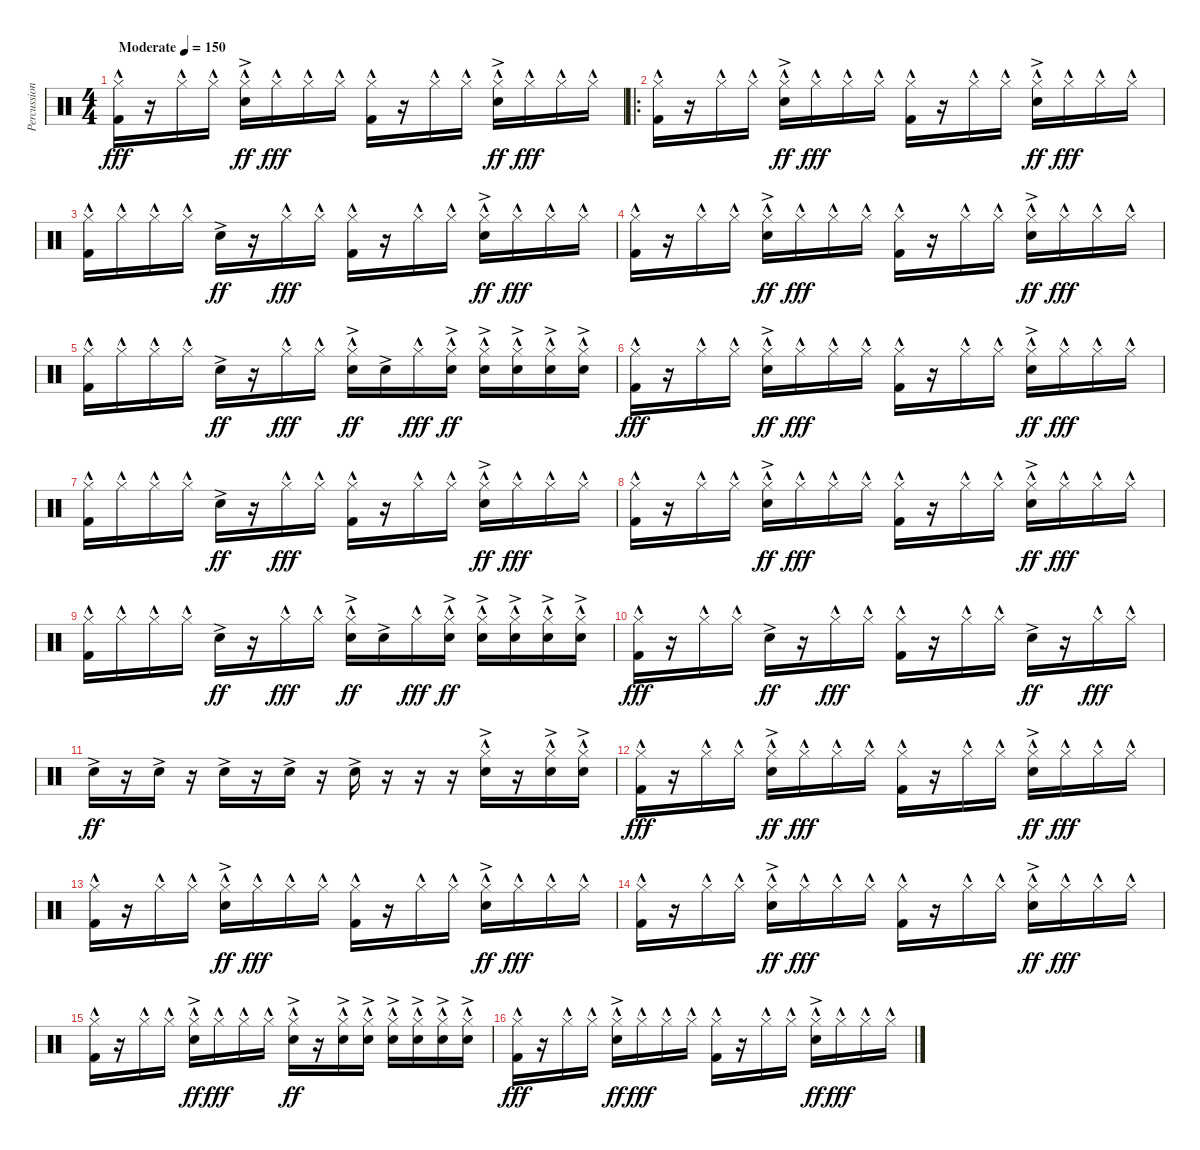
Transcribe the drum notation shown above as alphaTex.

\track ("Percussion" "Percussion") {instrument percussion}
\staff {score}
\articulation defaults
\ts (4 4)
\tempo (150 "Moderate")
\clef neutral
\ks c
("Hi-Hat (closed)"{hac} "Kick (hit) 2"{hac}).16{dy fff} r.16 "Hi-Hat (closed)"{hac}.16 "Hi-Hat (closed)"{hac}.16 ("Hi-Hat (closed)"{hac} "Snare (hit) 2"{ac}).16{dy ff} "Hi-Hat (closed)"{hac}.16{dy fff} "Hi-Hat (closed)"{hac}.16 "Hi-Hat (closed)"{hac}.16 ("Hi-Hat (closed)"{hac} "Kick (hit) 2"{hac}).16 r.16 "Hi-Hat (closed)"{hac}.16 "Hi-Hat (closed)"{hac}.16 ("Hi-Hat (closed)"{hac} "Snare (hit) 2"{ac}).16{dy ff} "Hi-Hat (closed)"{hac}.16{dy fff} "Hi-Hat (closed)"{hac}.16 "Hi-Hat (closed)"{hac}.16 |
\ro
("Hi-Hat (closed)"{hac} "Kick (hit) 2"{hac}).16 r.16 "Hi-Hat (closed)"{hac}.16 "Hi-Hat (closed)"{hac}.16 ("Hi-Hat (closed)"{hac} "Snare (hit) 2"{ac}).16{dy ff} "Hi-Hat (closed)"{hac}.16{dy fff} "Hi-Hat (closed)"{hac}.16 "Hi-Hat (closed)"{hac}.16 ("Hi-Hat (closed)"{hac} "Kick (hit) 2"{hac}).16 r.16 "Hi-Hat (closed)"{hac}.16 "Hi-Hat (closed)"{hac}.16 ("Hi-Hat (closed)"{hac} "Snare (hit) 2"{ac}).16{dy ff} "Hi-Hat (closed)"{hac}.16{dy fff} "Hi-Hat (closed)"{hac}.16 "Hi-Hat (closed)"{hac}.16 |
("Hi-Hat (closed)"{hac} "Kick (hit) 2"{hac}).16 "Hi-Hat (closed)"{hac}.16 "Hi-Hat (closed)"{hac}.16 "Hi-Hat (closed)"{hac}.16 "Snare (hit) 2"{ac}.16{dy ff} r.16 "Hi-Hat (closed)"{hac}.16{dy fff} "Hi-Hat (closed)"{hac}.16 ("Hi-Hat (closed)"{hac} "Kick (hit) 2"{hac}).16 r.16 "Hi-Hat (closed)"{hac}.16 "Hi-Hat (closed)"{hac}.16 ("Hi-Hat (closed)"{hac} "Snare (hit) 2"{ac}).16{dy ff} "Hi-Hat (closed)"{hac}.16{dy fff} "Hi-Hat (closed)"{hac}.16 "Hi-Hat (closed)"{hac}.16 |
("Hi-Hat (closed)"{hac} "Kick (hit) 2"{hac}).16 r.16 "Hi-Hat (closed)"{hac}.16 "Hi-Hat (closed)"{hac}.16 ("Hi-Hat (closed)"{hac} "Snare (hit) 2"{ac}).16{dy ff} "Hi-Hat (closed)"{hac}.16{dy fff} "Hi-Hat (closed)"{hac}.16 "Hi-Hat (closed)"{hac}.16 ("Hi-Hat (closed)"{hac} "Kick (hit) 2"{hac}).16 r.16 "Hi-Hat (closed)"{hac}.16 "Hi-Hat (closed)"{hac}.16 ("Hi-Hat (closed)"{hac} "Snare (hit) 2"{ac}).16{dy ff} "Hi-Hat (closed)"{hac}.16{dy fff} "Hi-Hat (closed)"{hac}.16 "Hi-Hat (closed)"{hac}.16 |
("Hi-Hat (closed)"{hac} "Kick (hit) 2"{hac}).16 "Hi-Hat (closed)"{hac}.16 "Hi-Hat (closed)"{hac}.16 "Hi-Hat (closed)"{hac}.16 "Snare (hit) 2"{ac}.16{dy ff} r.16 "Hi-Hat (closed)"{hac}.16{dy fff} "Hi-Hat (closed)"{hac}.16 ("Hi-Hat (closed)"{hac} "Snare (hit) 2"{ac}).16{dy ff} "Snare (hit) 2"{ac}.16 "Hi-Hat (closed)"{hac}.16{dy fff} ("Hi-Hat (closed)"{hac} "Snare (hit) 2"{ac}).16{dy ff} ("Hi-Hat (closed)"{hac} "Snare (hit) 2"{ac}).16 ("Hi-Hat (closed)"{hac} "Snare (hit) 2"{ac}).16 ("Hi-Hat (closed)"{hac} "Snare (hit) 2"{ac}).16 ("Hi-Hat (closed)"{hac} "Snare (hit) 2"{ac}).16 |
("Hi-Hat (closed)"{hac} "Kick (hit) 2"{hac}).16{dy fff} r.16 "Hi-Hat (closed)"{hac}.16 "Hi-Hat (closed)"{hac}.16 ("Hi-Hat (closed)"{hac} "Snare (hit) 2"{ac}).16{dy ff} "Hi-Hat (closed)"{hac}.16{dy fff} "Hi-Hat (closed)"{hac}.16 "Hi-Hat (closed)"{hac}.16 ("Hi-Hat (closed)"{hac} "Kick (hit) 2"{hac}).16 r.16 "Hi-Hat (closed)"{hac}.16 "Hi-Hat (closed)"{hac}.16 ("Hi-Hat (closed)"{hac} "Snare (hit) 2"{ac}).16{dy ff} "Hi-Hat (closed)"{hac}.16{dy fff} "Hi-Hat (closed)"{hac}.16 "Hi-Hat (closed)"{hac}.16 |
("Hi-Hat (closed)"{hac} "Kick (hit) 2"{hac}).16 "Hi-Hat (closed)"{hac}.16 "Hi-Hat (closed)"{hac}.16 "Hi-Hat (closed)"{hac}.16 "Snare (hit) 2"{ac}.16{dy ff} r.16 "Hi-Hat (closed)"{hac}.16{dy fff} "Hi-Hat (closed)"{hac}.16 ("Hi-Hat (closed)"{hac} "Kick (hit) 2"{hac}).16 r.16 "Hi-Hat (closed)"{hac}.16 "Hi-Hat (closed)"{hac}.16 ("Hi-Hat (closed)"{hac} "Snare (hit) 2"{ac}).16{dy ff} "Hi-Hat (closed)"{hac}.16{dy fff} "Hi-Hat (closed)"{hac}.16 "Hi-Hat (closed)"{hac}.16 |
("Hi-Hat (closed)"{hac} "Kick (hit) 2"{hac}).16 r.16 "Hi-Hat (closed)"{hac}.16 "Hi-Hat (closed)"{hac}.16 ("Hi-Hat (closed)"{hac} "Snare (hit) 2"{ac}).16{dy ff} "Hi-Hat (closed)"{hac}.16{dy fff} "Hi-Hat (closed)"{hac}.16 "Hi-Hat (closed)"{hac}.16 ("Hi-Hat (closed)"{hac} "Kick (hit) 2"{hac}).16 r.16 "Hi-Hat (closed)"{hac}.16 "Hi-Hat (closed)"{hac}.16 ("Hi-Hat (closed)"{hac} "Snare (hit) 2"{ac}).16{dy ff} "Hi-Hat (closed)"{hac}.16{dy fff} "Hi-Hat (closed)"{hac}.16 "Hi-Hat (closed)"{hac}.16 |
("Hi-Hat (closed)"{hac} "Kick (hit) 2"{hac}).16 "Hi-Hat (closed)"{hac}.16 "Hi-Hat (closed)"{hac}.16 "Hi-Hat (closed)"{hac}.16 "Snare (hit) 2"{ac}.16{dy ff} r.16 "Hi-Hat (closed)"{hac}.16{dy fff} "Hi-Hat (closed)"{hac}.16 ("Hi-Hat (closed)"{hac} "Snare (hit) 2"{ac}).16{dy ff} "Snare (hit) 2"{ac}.16 "Hi-Hat (closed)"{hac}.16{dy fff} ("Hi-Hat (closed)"{hac} "Snare (hit) 2"{ac}).16{dy ff} ("Hi-Hat (closed)"{hac} "Snare (hit) 2"{ac}).16 ("Hi-Hat (closed)"{hac} "Snare (hit) 2"{ac}).16 ("Hi-Hat (closed)"{hac} "Snare (hit) 2"{ac}).16 ("Hi-Hat (closed)"{hac} "Snare (hit) 2"{ac}).16 |
("Hi-Hat (closed)"{hac} "Kick (hit) 2"{hac}).16{dy fff} r.16 "Hi-Hat (closed)"{hac}.16 "Hi-Hat (closed)"{hac}.16 "Snare (hit) 2"{ac}.16{dy ff} r.16 "Hi-Hat (closed)"{hac}.16{dy fff} "Hi-Hat (closed)"{hac}.16 ("Hi-Hat (closed)"{hac} "Kick (hit) 2"{hac}).16 r.16 "Hi-Hat (closed)"{hac}.16 "Hi-Hat (closed)"{hac}.16 "Snare (hit) 2"{ac}.16{dy ff} r.16 "Hi-Hat (closed)"{hac}.16{dy fff} "Hi-Hat (closed)"{hac}.16 |
"Snare (hit) 2"{ac}.16{dy ff} r.16 "Snare (hit) 2"{ac}.16 r.16 "Snare (hit) 2"{ac}.16 r.16 "Snare (hit) 2"{ac}.16 r.16 "Snare (hit) 2"{ac}.16 r.16 r.16 r.16 ("Hi-Hat (closed)"{hac} "Snare (hit) 2"{ac}).16 r.16 ("Hi-Hat (closed)"{hac} "Snare (hit) 2"{ac}).16 ("Hi-Hat (closed)"{hac} "Snare (hit) 2"{ac}).16 |
("Hi-Hat (closed)"{hac} "Kick (hit) 2"{hac}).16{dy fff} r.16 "Hi-Hat (closed)"{hac}.16 "Hi-Hat (closed)"{hac}.16 ("Hi-Hat (closed)"{hac} "Snare (hit) 2"{ac}).16{dy ff} "Hi-Hat (closed)"{hac}.16{dy fff} "Hi-Hat (closed)"{hac}.16 "Hi-Hat (closed)"{hac}.16 ("Hi-Hat (closed)"{hac} "Kick (hit) 2"{hac}).16 r.16 "Hi-Hat (closed)"{hac}.16 "Hi-Hat (closed)"{hac}.16 ("Hi-Hat (closed)"{hac} "Snare (hit) 2"{ac}).16{dy ff} "Hi-Hat (closed)"{hac}.16{dy fff} "Hi-Hat (closed)"{hac}.16 "Hi-Hat (closed)"{hac}.16 |
("Hi-Hat (closed)"{hac} "Kick (hit) 2"{hac}).16 r.16 "Hi-Hat (closed)"{hac}.16 "Hi-Hat (closed)"{hac}.16 ("Hi-Hat (closed)"{hac} "Snare (hit) 2"{ac}).16{dy ff} "Hi-Hat (closed)"{hac}.16{dy fff} "Hi-Hat (closed)"{hac}.16 "Hi-Hat (closed)"{hac}.16 ("Hi-Hat (closed)"{hac} "Kick (hit) 2"{hac}).16 r.16 "Hi-Hat (closed)"{hac}.16 "Hi-Hat (closed)"{hac}.16 ("Hi-Hat (closed)"{hac} "Snare (hit) 2"{ac}).16{dy ff} "Hi-Hat (closed)"{hac}.16{dy fff} "Hi-Hat (closed)"{hac}.16 "Hi-Hat (closed)"{hac}.16 |
("Hi-Hat (closed)"{hac} "Kick (hit) 2"{hac}).16 r.16 "Hi-Hat (closed)"{hac}.16 "Hi-Hat (closed)"{hac}.16 ("Hi-Hat (closed)"{hac} "Snare (hit) 2"{ac}).16{dy ff} "Hi-Hat (closed)"{hac}.16{dy fff} "Hi-Hat (closed)"{hac}.16 "Hi-Hat (closed)"{hac}.16 ("Hi-Hat (closed)"{hac} "Kick (hit) 2"{hac}).16 r.16 "Hi-Hat (closed)"{hac}.16 "Hi-Hat (closed)"{hac}.16 ("Hi-Hat (closed)"{hac} "Snare (hit) 2"{ac}).16{dy ff} "Hi-Hat (closed)"{hac}.16{dy fff} "Hi-Hat (closed)"{hac}.16 "Hi-Hat (closed)"{hac}.16 |
("Hi-Hat (closed)"{hac} "Kick (hit) 2"{hac}).16 r.16 "Hi-Hat (closed)"{hac}.16 "Hi-Hat (closed)"{hac}.16 ("Hi-Hat (closed)"{hac} "Snare (hit) 2"{ac}).16{dy ff} "Hi-Hat (closed)"{hac}.16{dy fff} "Hi-Hat (closed)"{hac}.16 "Hi-Hat (closed)"{hac}.16 ("Hi-Hat (closed)"{hac} "Snare (hit) 2"{ac}).16{dy ff} r.16 ("Hi-Hat (closed)"{hac} "Snare (hit) 2"{ac}).16 ("Hi-Hat (closed)"{hac} "Snare (hit) 2"{ac}).16 ("Hi-Hat (closed)"{hac} "Snare (hit) 2"{ac}).16 ("Hi-Hat (closed)"{hac} "Snare (hit) 2"{ac}).16 ("Hi-Hat (closed)"{hac} "Snare (hit) 2"{ac}).16 ("Hi-Hat (closed)"{hac} "Snare (hit) 2"{ac}).16 |
("Hi-Hat (closed)"{hac} "Kick (hit) 2"{hac}).16{dy fff} r.16 "Hi-Hat (closed)"{hac}.16 "Hi-Hat (closed)"{hac}.16 ("Hi-Hat (closed)"{hac} "Snare (hit) 2"{ac}).16{dy ff} "Hi-Hat (closed)"{hac}.16{dy fff} "Hi-Hat (closed)"{hac}.16 "Hi-Hat (closed)"{hac}.16 ("Hi-Hat (closed)"{hac} "Kick (hit) 2"{hac}).16 r.16 "Hi-Hat (closed)"{hac}.16 "Hi-Hat (closed)"{hac}.16 ("Hi-Hat (closed)"{hac} "Snare (hit) 2"{ac}).16{dy ff} "Hi-Hat (closed)"{hac}.16{dy fff} "Hi-Hat (closed)"{hac}.16 "Hi-Hat (closed)"{hac}.16
